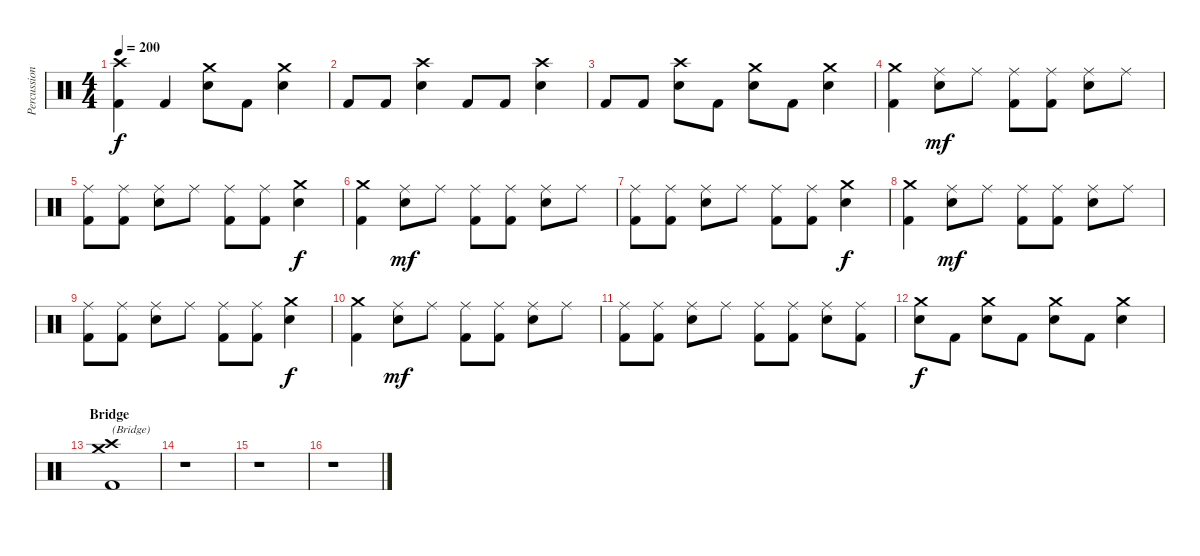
\track ("Percussion" "Percussion") {instrument percussion}
\staff {score}
\articulation defaults
\ts (4 4)
\tempo 200
\clef neutral
\ks c
("Crash high (hit)" "Kick (hit) 2").4{dy f} "Kick (hit) 2".4 ("Crash medium (hit)" "Electric Snare (hit)").8 "Kick (hit) 2".8 ("Crash medium (hit)" "Electric Snare (hit)").4 |
"Kick (hit) 2".8 "Kick (hit) 2".8 ("Crash high (hit)" "Electric Snare (hit)").4 "Kick (hit) 2".8 "Kick (hit) 2".8 ("Crash high (hit)" "Electric Snare (hit)").4 |
"Kick (hit) 2".8 "Kick (hit) 2".8 ("Crash high (hit)" "Electric Snare (hit)").8 "Kick (hit) 2".8 ("Crash medium (hit)" "Electric Snare (hit)").8 "Kick (hit) 2".8 ("Crash medium (hit)" "Electric Snare (hit)").4 |
("Crash medium (hit)" "Kick (hit) 2").4 ("Ride (middle)" "Electric Snare (hit)").8{dy mf} "Ride (middle)".8 ("Ride (middle)" "Kick (hit) 2").8 ("Ride (middle)" "Kick (hit) 2").8 ("Ride (middle)" "Electric Snare (hit)").8 "Ride (middle)".8 |
("Ride (middle)" "Kick (hit) 2").8 ("Ride (middle)" "Kick (hit) 2").8 ("Ride (middle)" "Electric Snare (hit)").8 "Ride (middle)".8 ("Ride (middle)" "Kick (hit) 2").8 ("Ride (middle)" "Kick (hit) 2").8 ("Crash medium (hit)" "Electric Snare (hit)").4{dy f} |
("Crash medium (hit)" "Kick (hit) 2").4 ("Ride (middle)" "Electric Snare (hit)").8{dy mf} "Ride (middle)".8 ("Ride (middle)" "Kick (hit) 2").8 ("Ride (middle)" "Kick (hit) 2").8 ("Ride (middle)" "Electric Snare (hit)").8 "Ride (middle)".8 |
("Ride (middle)" "Kick (hit) 2").8 ("Ride (middle)" "Kick (hit) 2").8 ("Ride (middle)" "Electric Snare (hit)").8 "Ride (middle)".8 ("Ride (middle)" "Kick (hit) 2").8 ("Ride (middle)" "Kick (hit) 2").8 ("Crash medium (hit)" "Electric Snare (hit)").4{dy f} |
("Crash medium (hit)" "Kick (hit) 2").4 ("Ride (middle)" "Electric Snare (hit)").8{dy mf} "Ride (middle)".8 ("Ride (middle)" "Kick (hit) 2").8 ("Ride (middle)" "Kick (hit) 2").8 ("Ride (middle)" "Electric Snare (hit)").8 "Ride (middle)".8 |
("Ride (middle)" "Kick (hit) 2").8 ("Ride (middle)" "Kick (hit) 2").8 ("Ride (middle)" "Electric Snare (hit)").8 "Ride (middle)".8 ("Ride (middle)" "Kick (hit) 2").8 ("Ride (middle)" "Kick (hit) 2").8 ("Crash medium (hit)" "Electric Snare (hit)").4{dy f} |
("Crash medium (hit)" "Kick (hit) 2").4 ("Ride (middle)" "Electric Snare (hit)").8{dy mf} "Ride (middle)".8 ("Ride (middle)" "Kick (hit) 2").8 ("Ride (middle)" "Kick (hit) 2").8 ("Ride (middle)" "Electric Snare (hit)").8 "Ride (middle)".8 |
("Ride (middle)" "Kick (hit) 2").8 ("Ride (middle)" "Kick (hit) 2").8 ("Ride (middle)" "Electric Snare (hit)").8 "Ride (middle)".8 ("Ride (middle)" "Kick (hit) 2").8 ("Ride (middle)" "Kick (hit) 2").8 ("Ride (middle)" "Electric Snare (hit)").8 ("Ride (middle)" "Kick (hit) 2").8 |
("Crash medium (hit)" "Electric Snare (hit)").8{dy f} "Kick (hit) 2".8 ("Crash medium (hit)" "Electric Snare (hit)").8 "Kick (hit) 2".8 ("Crash medium (hit)" "Electric Snare (hit)").8 "Kick (hit) 2".8 ("Crash medium (hit)" "Electric Snare (hit)").4 |
\section ("" "Bridge")
("Crash medium (hit)" "Crash high (hit)" "Kick (hit) 2").1{txt "(Bridge)"} |
r.1 |
r.1 |
r.1
